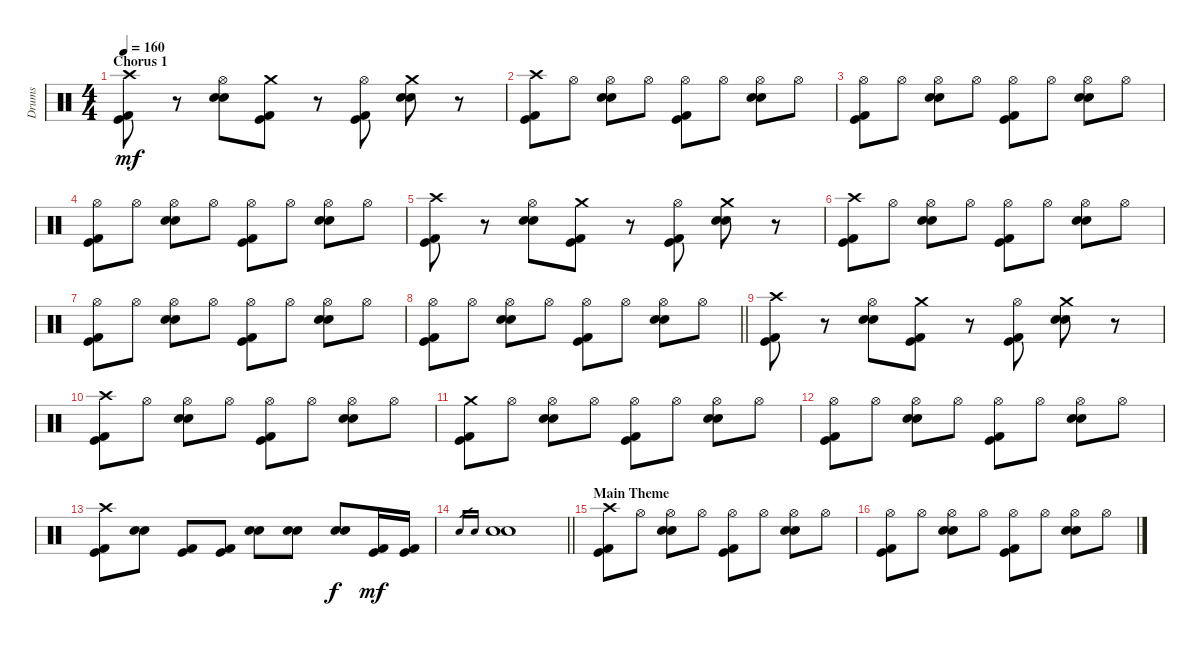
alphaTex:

\track ("Drums" "Drums") {instrument percussion}
\staff {score}
\articulation defaults
\ts (4 4)
\section ("" "Chorus 1")
\tempo 160
\clef neutral
\ks c
("Crash high (hit)" "Kick (hit) 2" "Kick (hit)").8{dy mf} r.8 ("Hi-Hat (open)" "Snare (hit) 2" "Electric Snare (hit)").8 ("Crash medium (hit)" "Kick (hit) 2" "Kick (hit)").8 r.8 ("Hi-Hat (open)" "Kick (hit) 2" "Kick (hit)").8 ("Crash medium (hit)" "Snare (hit) 2" "Electric Snare (hit)").8 r.8 |
("Crash high (hit)" "Kick (hit) 2" "Kick (hit)").8 "Hi-Hat (open)".8 ("Hi-Hat (open)" "Snare (hit) 2" "Electric Snare (hit)").8 "Hi-Hat (open)".8 ("Hi-Hat (open)" "Kick (hit) 2" "Kick (hit)").8 "Hi-Hat (open)".8 ("Hi-Hat (open)" "Snare (hit) 2" "Electric Snare (hit)").8 "Hi-Hat (open)".8 |
("Hi-Hat (open)" "Kick (hit) 2" "Kick (hit)").8 "Hi-Hat (open)".8 ("Hi-Hat (open)" "Snare (hit) 2" "Electric Snare (hit)").8 "Hi-Hat (open)".8 ("Hi-Hat (open)" "Kick (hit) 2" "Kick (hit)").8 "Hi-Hat (open)".8 ("Hi-Hat (open)" "Snare (hit) 2" "Electric Snare (hit)").8 "Hi-Hat (open)".8 |
("Hi-Hat (open)" "Kick (hit) 2" "Kick (hit)").8 "Hi-Hat (open)".8 ("Hi-Hat (open)" "Snare (hit) 2" "Electric Snare (hit)").8 "Hi-Hat (open)".8 ("Hi-Hat (open)" "Kick (hit) 2" "Kick (hit)").8 "Hi-Hat (open)".8 ("Hi-Hat (open)" "Snare (hit) 2" "Electric Snare (hit)").8 "Hi-Hat (open)".8 |
("Crash high (hit)" "Kick (hit) 2" "Kick (hit)").8 r.8 ("Hi-Hat (open)" "Snare (hit) 2" "Electric Snare (hit)").8 ("Crash medium (hit)" "Kick (hit) 2" "Kick (hit)").8 r.8 ("Hi-Hat (open)" "Kick (hit) 2" "Kick (hit)").8 ("Crash medium (hit)" "Snare (hit) 2" "Electric Snare (hit)").8 r.8 |
("Crash high (hit)" "Kick (hit) 2" "Kick (hit)").8 "Hi-Hat (open)".8 ("Hi-Hat (open)" "Snare (hit) 2" "Electric Snare (hit)").8 "Hi-Hat (open)".8 ("Hi-Hat (open)" "Kick (hit) 2" "Kick (hit)").8 "Hi-Hat (open)".8 ("Hi-Hat (open)" "Snare (hit) 2" "Electric Snare (hit)").8 "Hi-Hat (open)".8 |
("Hi-Hat (open)" "Kick (hit) 2" "Kick (hit)").8 "Hi-Hat (open)".8 ("Hi-Hat (open)" "Snare (hit) 2" "Electric Snare (hit)").8 "Hi-Hat (open)".8 ("Hi-Hat (open)" "Kick (hit) 2" "Kick (hit)").8 "Hi-Hat (open)".8 ("Hi-Hat (open)" "Snare (hit) 2" "Electric Snare (hit)").8 "Hi-Hat (open)".8 |
\barLineRight lightlight
("Hi-Hat (open)" "Kick (hit) 2" "Kick (hit)").8 "Hi-Hat (open)".8 ("Hi-Hat (open)" "Snare (hit) 2" "Electric Snare (hit)").8 "Hi-Hat (open)".8 ("Hi-Hat (open)" "Kick (hit) 2" "Kick (hit)").8 "Hi-Hat (open)".8 ("Hi-Hat (open)" "Snare (hit) 2" "Electric Snare (hit)").8 "Hi-Hat (open)".8 |
("Crash high (hit)" "Kick (hit) 2" "Kick (hit)").8 r.8 ("Hi-Hat (open)" "Snare (hit) 2" "Electric Snare (hit)").8 ("Crash medium (hit)" "Kick (hit) 2" "Kick (hit)").8 r.8 ("Hi-Hat (open)" "Kick (hit) 2" "Kick (hit)").8 ("Crash medium (hit)" "Snare (hit) 2" "Electric Snare (hit)").8 r.8 |
("Crash high (hit)" "Kick (hit) 2" "Kick (hit)").8 "Hi-Hat (open)".8 ("Hi-Hat (open)" "Snare (hit) 2" "Electric Snare (hit)").8 "Hi-Hat (open)".8 ("Hi-Hat (open)" "Kick (hit) 2" "Kick (hit)").8 "Hi-Hat (open)".8 ("Hi-Hat (open)" "Snare (hit) 2" "Electric Snare (hit)").8 "Hi-Hat (open)".8 |
("Crash medium (hit)" "Kick (hit) 2" "Kick (hit)").8 "Hi-Hat (open)".8 ("Hi-Hat (open)" "Snare (hit) 2" "Electric Snare (hit)").8 "Hi-Hat (open)".8 ("Hi-Hat (open)" "Kick (hit) 2" "Kick (hit)").8 "Hi-Hat (open)".8 ("Hi-Hat (open)" "Snare (hit) 2" "Electric Snare (hit)").8 "Hi-Hat (open)".8 |
("Hi-Hat (open)" "Kick (hit) 2" "Kick (hit)").8 "Hi-Hat (open)".8 ("Hi-Hat (open)" "Snare (hit) 2" "Electric Snare (hit)").8 "Hi-Hat (open)".8 ("Hi-Hat (open)" "Kick (hit) 2" "Kick (hit)").8 "Hi-Hat (open)".8 ("Hi-Hat (open)" "Snare (hit) 2" "Electric Snare (hit)").8 "Hi-Hat (open)".8 |
("Crash high (hit)" "Kick (hit) 2" "Kick (hit)").8 ("Snare (hit) 2" "Electric Snare (hit)").8 ("Kick (hit) 2" "Kick (hit)").8 ("Kick (hit) 2" "Kick (hit)").8 ("Snare (hit) 2" "Electric Snare (hit)").8 ("Snare (hit) 2" "Electric Snare (hit)").8 ("Snare (hit) 2" "Electric Snare (hit)").8{dy f} ("Kick (hit) 2" "Kick (hit)").16{dy mf} ("Kick (hit) 2" "Kick (hit)").16 |
\barLineRight lightlight "Snare (hit) 2".16{gr} "Electric Snare (hit)".16{gr}
("Snare (hit) 2" "Electric Snare (hit)").1 |
\section ("" "Main Theme")
("Crash high (hit)" "Kick (hit) 2" "Kick (hit)").8 "Hi-Hat (open)".8 ("Hi-Hat (open)" "Snare (hit) 2" "Electric Snare (hit)").8 "Hi-Hat (open)".8 ("Hi-Hat (open)" "Kick (hit) 2" "Kick (hit)").8 "Hi-Hat (open)".8 ("Hi-Hat (open)" "Snare (hit) 2" "Electric Snare (hit)").8 "Hi-Hat (open)".8 |
("Hi-Hat (open)" "Kick (hit) 2" "Kick (hit)").8 "Hi-Hat (open)".8 ("Hi-Hat (open)" "Snare (hit) 2" "Electric Snare (hit)").8 "Hi-Hat (open)".8 ("Hi-Hat (open)" "Kick (hit) 2" "Kick (hit)").8 "Hi-Hat (open)".8 ("Hi-Hat (open)" "Snare (hit) 2" "Electric Snare (hit)").8 "Hi-Hat (open)".8
